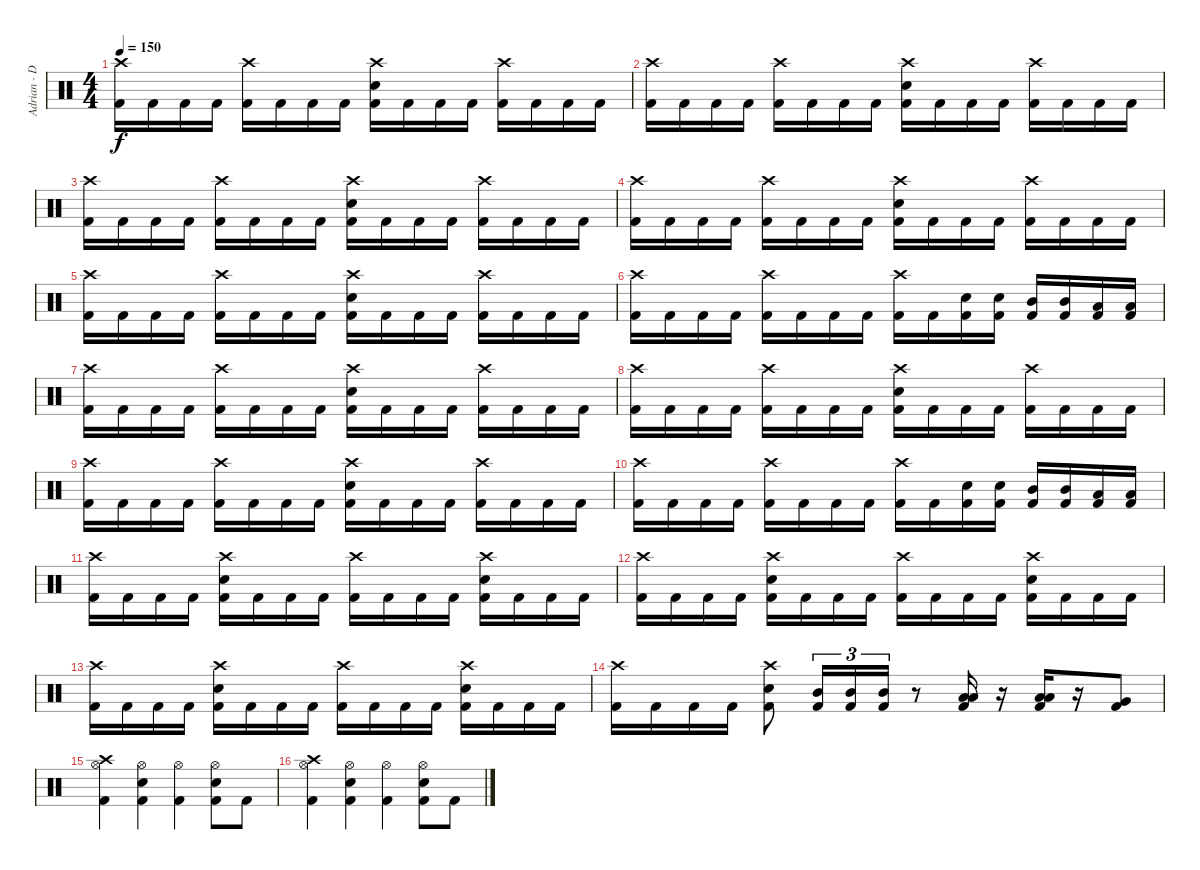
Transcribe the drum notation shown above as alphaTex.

\track ("Adrian - Drums" "Adrian - D") {instrument percussion}
\staff {score}
\articulation defaults
\ts (4 4)
\tempo 150
\clef neutral
\ks c
("Crash high (hit)" "Kick (hit) 2").16{dy f} "Kick (hit) 2".16 "Kick (hit) 2".16 "Kick (hit) 2".16 ("Crash high (hit)" "Kick (hit) 2").16 "Kick (hit) 2".16 "Kick (hit) 2".16 "Kick (hit) 2".16 ("Crash high (hit)" "Electric Snare (hit)" "Kick (hit) 2").16 "Kick (hit) 2".16 "Kick (hit) 2".16 "Kick (hit) 2".16 ("Crash high (hit)" "Kick (hit) 2").16 "Kick (hit) 2".16 "Kick (hit) 2".16 "Kick (hit) 2".16 |
("Crash high (hit)" "Kick (hit) 2").16 "Kick (hit) 2".16 "Kick (hit) 2".16 "Kick (hit) 2".16 ("Crash high (hit)" "Kick (hit) 2").16 "Kick (hit) 2".16 "Kick (hit) 2".16 "Kick (hit) 2".16 ("Crash high (hit)" "Electric Snare (hit)" "Kick (hit) 2").16 "Kick (hit) 2".16 "Kick (hit) 2".16 "Kick (hit) 2".16 ("Crash high (hit)" "Kick (hit) 2").16 "Kick (hit) 2".16 "Kick (hit) 2".16 "Kick (hit) 2".16 |
("Crash high (hit)" "Kick (hit) 2").16 "Kick (hit) 2".16 "Kick (hit) 2".16 "Kick (hit) 2".16 ("Crash high (hit)" "Kick (hit) 2").16 "Kick (hit) 2".16 "Kick (hit) 2".16 "Kick (hit) 2".16 ("Crash high (hit)" "Electric Snare (hit)" "Kick (hit) 2").16 "Kick (hit) 2".16 "Kick (hit) 2".16 "Kick (hit) 2".16 ("Crash high (hit)" "Kick (hit) 2").16 "Kick (hit) 2".16 "Kick (hit) 2".16 "Kick (hit) 2".16 |
("Crash high (hit)" "Kick (hit) 2").16 "Kick (hit) 2".16 "Kick (hit) 2".16 "Kick (hit) 2".16 ("Crash high (hit)" "Kick (hit) 2").16 "Kick (hit) 2".16 "Kick (hit) 2".16 "Kick (hit) 2".16 ("Crash high (hit)" "Electric Snare (hit)" "Kick (hit) 2").16 "Kick (hit) 2".16 "Kick (hit) 2".16 "Kick (hit) 2".16 ("Crash high (hit)" "Kick (hit) 2").16 "Kick (hit) 2".16 "Kick (hit) 2".16 "Kick (hit) 2".16 |
("Crash high (hit)" "Kick (hit) 2").16 "Kick (hit) 2".16 "Kick (hit) 2".16 "Kick (hit) 2".16 ("Crash high (hit)" "Kick (hit) 2").16 "Kick (hit) 2".16 "Kick (hit) 2".16 "Kick (hit) 2".16 ("Crash high (hit)" "Electric Snare (hit)" "Kick (hit) 2").16 "Kick (hit) 2".16 "Kick (hit) 2".16 "Kick (hit) 2".16 ("Crash high (hit)" "Kick (hit) 2").16 "Kick (hit) 2".16 "Kick (hit) 2".16 "Kick (hit) 2".16 |
("Crash high (hit)" "Kick (hit) 2").16 "Kick (hit) 2".16 "Kick (hit) 2".16 "Kick (hit) 2".16 ("Crash high (hit)" "Kick (hit) 2").16 "Kick (hit) 2".16 "Kick (hit) 2".16 "Kick (hit) 2".16 ("Crash high (hit)" "Kick (hit) 2").16 "Kick (hit) 2".16 ("Electric Snare (hit)" "Kick (hit) 2").16 ("Electric Snare (hit)" "Kick (hit) 2").16 ("Mid Tom (hit)" "Kick (hit) 2").16 ("Mid Tom (hit)" "Kick (hit) 2").16 ("Low Tom (hit)" "Kick (hit) 2").16 ("Low Tom (hit)" "Kick (hit) 2").16 |
("Crash high (hit)" "Kick (hit) 2").16 "Kick (hit) 2".16 "Kick (hit) 2".16 "Kick (hit) 2".16 ("Crash high (hit)" "Kick (hit) 2").16 "Kick (hit) 2".16 "Kick (hit) 2".16 "Kick (hit) 2".16 ("Crash high (hit)" "Electric Snare (hit)" "Kick (hit) 2").16 "Kick (hit) 2".16 "Kick (hit) 2".16 "Kick (hit) 2".16 ("Crash high (hit)" "Kick (hit) 2").16 "Kick (hit) 2".16 "Kick (hit) 2".16 "Kick (hit) 2".16 |
("Crash high (hit)" "Kick (hit) 2").16 "Kick (hit) 2".16 "Kick (hit) 2".16 "Kick (hit) 2".16 ("Crash high (hit)" "Kick (hit) 2").16 "Kick (hit) 2".16 "Kick (hit) 2".16 "Kick (hit) 2".16 ("Crash high (hit)" "Electric Snare (hit)" "Kick (hit) 2").16 "Kick (hit) 2".16 "Kick (hit) 2".16 "Kick (hit) 2".16 ("Crash high (hit)" "Kick (hit) 2").16 "Kick (hit) 2".16 "Kick (hit) 2".16 "Kick (hit) 2".16 |
("Crash high (hit)" "Kick (hit) 2").16 "Kick (hit) 2".16 "Kick (hit) 2".16 "Kick (hit) 2".16 ("Crash high (hit)" "Kick (hit) 2").16 "Kick (hit) 2".16 "Kick (hit) 2".16 "Kick (hit) 2".16 ("Crash high (hit)" "Electric Snare (hit)" "Kick (hit) 2").16 "Kick (hit) 2".16 "Kick (hit) 2".16 "Kick (hit) 2".16 ("Crash high (hit)" "Kick (hit) 2").16 "Kick (hit) 2".16 "Kick (hit) 2".16 "Kick (hit) 2".16 |
("Crash high (hit)" "Kick (hit) 2").16 "Kick (hit) 2".16 "Kick (hit) 2".16 "Kick (hit) 2".16 ("Crash high (hit)" "Kick (hit) 2").16 "Kick (hit) 2".16 "Kick (hit) 2".16 "Kick (hit) 2".16 ("Crash high (hit)" "Kick (hit) 2").16 "Kick (hit) 2".16 ("Electric Snare (hit)" "Kick (hit) 2").16 ("Electric Snare (hit)" "Kick (hit) 2").16 ("Mid Tom (hit)" "Kick (hit) 2").16 ("Mid Tom (hit)" "Kick (hit) 2").16 ("Low Tom (hit)" "Kick (hit) 2").16 ("Low Tom (hit)" "Kick (hit) 2").16 |
("Crash high (hit)" "Kick (hit) 2").16 "Kick (hit) 2".16 "Kick (hit) 2".16 "Kick (hit) 2".16 ("Crash high (hit)" "Electric Snare (hit)" "Kick (hit) 2").16 "Kick (hit) 2".16 "Kick (hit) 2".16 "Kick (hit) 2".16 ("Crash high (hit)" "Kick (hit) 2").16 "Kick (hit) 2".16 "Kick (hit) 2".16 "Kick (hit) 2".16 ("Crash high (hit)" "Electric Snare (hit)" "Kick (hit) 2").16 "Kick (hit) 2".16 "Kick (hit) 2".16 "Kick (hit) 2".16 |
("Crash high (hit)" "Kick (hit) 2").16 "Kick (hit) 2".16 "Kick (hit) 2".16 "Kick (hit) 2".16 ("Crash high (hit)" "Electric Snare (hit)" "Kick (hit) 2").16 "Kick (hit) 2".16 "Kick (hit) 2".16 "Kick (hit) 2".16 ("Crash high (hit)" "Kick (hit) 2").16 "Kick (hit) 2".16 "Kick (hit) 2".16 "Kick (hit) 2".16 ("Crash high (hit)" "Electric Snare (hit)" "Kick (hit) 2").16 "Kick (hit) 2".16 "Kick (hit) 2".16 "Kick (hit) 2".16 |
("Crash high (hit)" "Kick (hit) 2").16 "Kick (hit) 2".16 "Kick (hit) 2".16 "Kick (hit) 2".16 ("Crash high (hit)" "Electric Snare (hit)" "Kick (hit) 2").16 "Kick (hit) 2".16 "Kick (hit) 2".16 "Kick (hit) 2".16 ("Crash high (hit)" "Kick (hit) 2").16 "Kick (hit) 2".16 "Kick (hit) 2".16 "Kick (hit) 2".16 ("Crash high (hit)" "Electric Snare (hit)" "Kick (hit) 2").16 "Kick (hit) 2".16 "Kick (hit) 2".16 "Kick (hit) 2".16 |
("Crash high (hit)" "Kick (hit) 2").16 "Kick (hit) 2".16 "Kick (hit) 2".16 "Kick (hit) 2".16 ("Crash high (hit)" "Electric Snare (hit)" "Kick (hit) 2").8 ("Mid Tom (hit)" "Kick (hit) 2").16{tu (3 2)} ("Mid Tom (hit)" "Kick (hit) 2").16{tu (3 2)} ("Mid Tom (hit)" "Kick (hit) 2").16{tu (3 2)} r.8 ("Low Tom (hit)" "Low Tom (hit)" "Kick (hit) 2").16 r.16 ("Low Tom (hit)" "Low Tom (hit)" "Kick (hit) 2").16 r.16 ("Very Low Tom (hit)" "Kick (hit) 2").8 |
("Crash high (hit)" "Hi-Hat (open)" "Kick (hit) 2").4 ("Hi-Hat (open)" "Electric Snare (hit)" "Kick (hit) 2").4 ("Hi-Hat (open)" "Kick (hit) 2").4 ("Hi-Hat (open)" "Electric Snare (hit)" "Kick (hit) 2").8 "Kick (hit) 2".8 |
("Crash high (hit)" "Hi-Hat (open)" "Kick (hit) 2").4 ("Hi-Hat (open)" "Electric Snare (hit)" "Kick (hit) 2").4 ("Hi-Hat (open)" "Kick (hit) 2").4 ("Hi-Hat (open)" "Electric Snare (hit)" "Kick (hit) 2").8 "Kick (hit) 2".8
